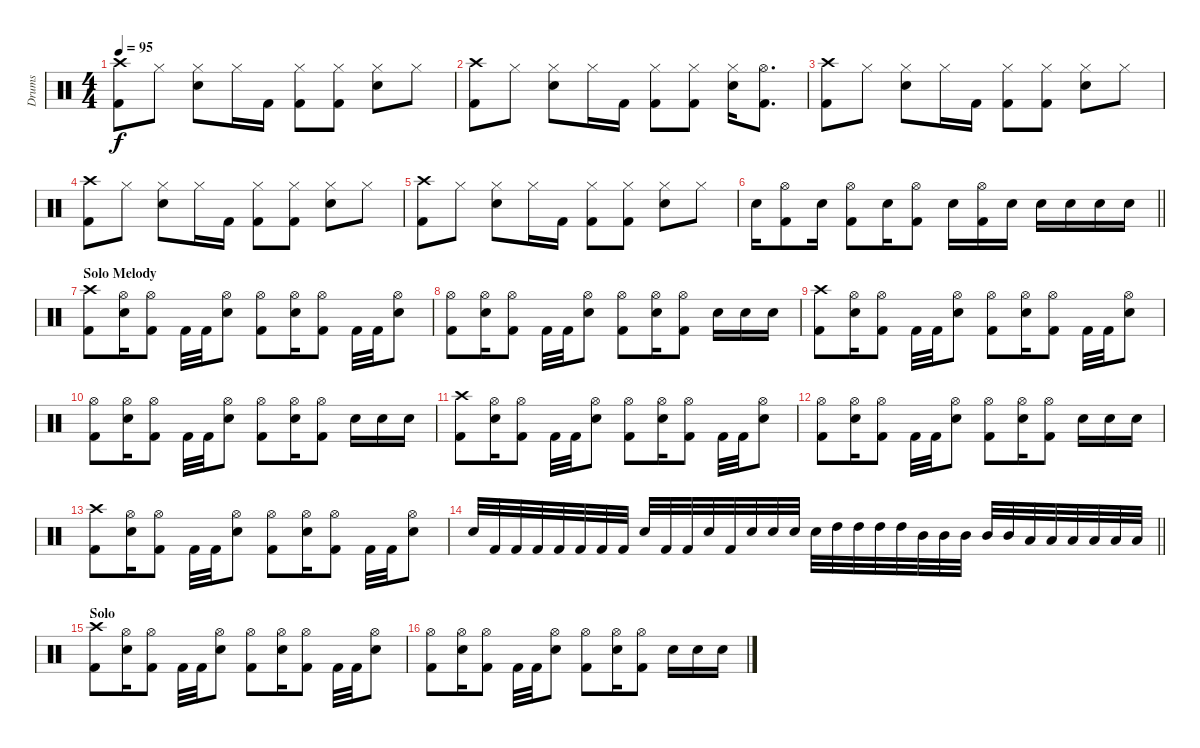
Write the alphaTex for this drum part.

\track ("Drums" "Drums") {instrument percussion}
\staff {score}
\articulation defaults
\ts (4 4)
\tempo 95
\clef neutral
\ks c
("Crash high (hit)" "Kick (hit) 2").8{dy f} "Hi-Hat (closed)".8 ("Hi-Hat (closed)" "Snare (hit) 2").8 "Hi-Hat (closed)".16 "Kick (hit) 2".16 ("Hi-Hat (closed)" "Kick (hit) 2").8 ("Hi-Hat (closed)" "Kick (hit) 2").8 ("Hi-Hat (closed)" "Snare (hit) 2").8 "Hi-Hat (closed)".8 |
("Crash high (hit)" "Kick (hit) 2").8 "Hi-Hat (closed)".8 ("Hi-Hat (closed)" "Snare (hit) 2").8 "Hi-Hat (closed)".16 "Kick (hit) 2".16 ("Hi-Hat (closed)" "Kick (hit) 2").8 ("Hi-Hat (closed)" "Kick (hit) 2").8 ("Hi-Hat (closed)" "Snare (hit) 2").16 ("Hi-Hat (open)" "Kick (hit) 2").8{d} |
("Crash high (hit)" "Kick (hit) 2").8 "Hi-Hat (closed)".8 ("Hi-Hat (closed)" "Snare (hit) 2").8 "Hi-Hat (closed)".16 "Kick (hit) 2".16 ("Hi-Hat (closed)" "Kick (hit) 2").8 ("Hi-Hat (closed)" "Kick (hit) 2").8 ("Hi-Hat (closed)" "Snare (hit) 2").8 "Hi-Hat (closed)".8 |
("Crash high (hit)" "Kick (hit) 2").8 "Hi-Hat (closed)".8 ("Hi-Hat (closed)" "Snare (hit) 2").8 "Hi-Hat (closed)".16 "Kick (hit) 2".16 ("Hi-Hat (closed)" "Kick (hit) 2").8 ("Hi-Hat (closed)" "Kick (hit) 2").8 ("Hi-Hat (closed)" "Snare (hit) 2").8 "Hi-Hat (closed)".8 |
("Crash high (hit)" "Kick (hit) 2").8 "Hi-Hat (closed)".8 ("Hi-Hat (closed)" "Snare (hit) 2").8 "Hi-Hat (closed)".16 "Kick (hit) 2".16 ("Hi-Hat (closed)" "Kick (hit) 2").8 ("Hi-Hat (closed)" "Kick (hit) 2").8 ("Hi-Hat (closed)" "Snare (hit) 2").8 "Hi-Hat (closed)".8 |
\barLineRight lightlight "Snare (hit) 2".16
("Hi-Hat (open)" "Kick (hit) 2").8 "Snare (hit) 2".16 ("Hi-Hat (open)" "Kick (hit) 2").8 "Snare (hit) 2".16 ("Hi-Hat (open)" "Kick (hit) 2").8 "Snare (hit) 2".16 ("Hi-Hat (open)" "Kick (hit) 2").16 "Snare (hit) 2".16 "Snare (hit) 2".16 "Snare (hit) 2".16 "Snare (hit) 2".16 "Snare (hit) 2".16 |
\section ("" "Solo Melody")
("Crash high (hit)" "Kick (hit) 2").8 ("Hi-Hat (open)" "Snare (hit) 2").16 ("Hi-Hat (open)" "Kick (hit) 2").8 "Kick (hit) 2".32 "Kick (hit) 2".32 ("Hi-Hat (open)" "Snare (hit) 2").8 ("Hi-Hat (open)" "Kick (hit) 2").8 ("Hi-Hat (open)" "Snare (hit) 2").16 ("Hi-Hat (open)" "Kick (hit) 2").8 "Kick (hit) 2".32 "Kick (hit) 2".32 ("Hi-Hat (open)" "Snare (hit) 2").8 |
("Hi-Hat (open)" "Kick (hit) 2").8 ("Hi-Hat (open)" "Snare (hit) 2").16 ("Hi-Hat (open)" "Kick (hit) 2").8 "Kick (hit) 2".32 "Kick (hit) 2".32 ("Hi-Hat (open)" "Snare (hit) 2").8 ("Hi-Hat (open)" "Kick (hit) 2").8 ("Hi-Hat (open)" "Snare (hit) 2").16 ("Hi-Hat (open)" "Kick (hit) 2").8 "Snare (hit) 2".16 "Snare (hit) 2".16 "Snare (hit) 2".16 |
("Crash high (hit)" "Kick (hit) 2").8 ("Hi-Hat (open)" "Snare (hit) 2").16 ("Hi-Hat (open)" "Kick (hit) 2").8 "Kick (hit) 2".32 "Kick (hit) 2".32 ("Hi-Hat (open)" "Snare (hit) 2").8 ("Hi-Hat (open)" "Kick (hit) 2").8 ("Hi-Hat (open)" "Snare (hit) 2").16 ("Hi-Hat (open)" "Kick (hit) 2").8 "Kick (hit) 2".32 "Kick (hit) 2".32 ("Hi-Hat (open)" "Snare (hit) 2").8 |
("Hi-Hat (open)" "Kick (hit) 2").8 ("Hi-Hat (open)" "Snare (hit) 2").16 ("Hi-Hat (open)" "Kick (hit) 2").8 "Kick (hit) 2".32 "Kick (hit) 2".32 ("Hi-Hat (open)" "Snare (hit) 2").8 ("Hi-Hat (open)" "Kick (hit) 2").8 ("Hi-Hat (open)" "Snare (hit) 2").16 ("Hi-Hat (open)" "Kick (hit) 2").8 "Snare (hit) 2".16 "Snare (hit) 2".16 "Snare (hit) 2".16 |
("Crash high (hit)" "Kick (hit) 2").8 ("Hi-Hat (open)" "Snare (hit) 2").16 ("Hi-Hat (open)" "Kick (hit) 2").8 "Kick (hit) 2".32 "Kick (hit) 2".32 ("Hi-Hat (open)" "Snare (hit) 2").8 ("Hi-Hat (open)" "Kick (hit) 2").8 ("Hi-Hat (open)" "Snare (hit) 2").16 ("Hi-Hat (open)" "Kick (hit) 2").8 "Kick (hit) 2".32 "Kick (hit) 2".32 ("Hi-Hat (open)" "Snare (hit) 2").8 |
("Hi-Hat (open)" "Kick (hit) 2").8 ("Hi-Hat (open)" "Snare (hit) 2").16 ("Hi-Hat (open)" "Kick (hit) 2").8 "Kick (hit) 2".32 "Kick (hit) 2".32 ("Hi-Hat (open)" "Snare (hit) 2").8 ("Hi-Hat (open)" "Kick (hit) 2").8 ("Hi-Hat (open)" "Snare (hit) 2").16 ("Hi-Hat (open)" "Kick (hit) 2").8 "Snare (hit) 2".16 "Snare (hit) 2".16 "Snare (hit) 2".16 |
("Crash high (hit)" "Kick (hit) 2").8 ("Hi-Hat (open)" "Snare (hit) 2").16 ("Hi-Hat (open)" "Kick (hit) 2").8 "Kick (hit) 2".32 "Kick (hit) 2".32 ("Hi-Hat (open)" "Snare (hit) 2").8 ("Hi-Hat (open)" "Kick (hit) 2").8 ("Hi-Hat (open)" "Snare (hit) 2").16 ("Hi-Hat (open)" "Kick (hit) 2").8 "Kick (hit) 2".32 "Kick (hit) 2".32 ("Hi-Hat (open)" "Snare (hit) 2").8 |
\barLineRight lightlight "Snare (hit) 2".32 "Kick (hit) 2".32 "Kick (hit) 2".32 "Kick (hit) 2".32 "Kick (hit) 2".32 "Kick (hit) 2".32 "Kick (hit) 2".32 "Kick (hit) 2".32 "Snare (hit) 2".32 "Kick (hit) 2".32 "Kick (hit) 2".32 "Snare (hit) 2".32 "Kick (hit) 2".32 "Snare (hit) 2".32 "Snare (hit) 2".32 "Snare (hit) 2".32 "Snare (hit) 2".32 "High Tom (hit)".32 "High Tom (hit)".32 "High Tom (hit)".32 "High Tom (hit)".32 "Mid Tom (hit)".32 "Mid Tom (hit)".32 "Mid Tom (hit)".32 "Mid Tom (hit)".32 "Mid Tom (hit)".32 "Low Tom (hit)".32 "Low Tom (hit)".32 "Low Tom (hit)".32 "Low Tom (hit)".32 "Low Tom (hit)".32 "Low Tom (hit)".32
|
\section ("" "Solo")
("Crash high (hit)" "Kick (hit) 2").8 ("Hi-Hat (open)" "Snare (hit) 2").16 ("Hi-Hat (open)" "Kick (hit) 2").8 "Kick (hit) 2".32 "Kick (hit) 2".32 ("Hi-Hat (open)" "Snare (hit) 2").8 ("Hi-Hat (open)" "Kick (hit) 2").8 ("Hi-Hat (open)" "Snare (hit) 2").16 ("Hi-Hat (open)" "Kick (hit) 2").8 "Kick (hit) 2".32 "Kick (hit) 2".32 ("Hi-Hat (open)" "Snare (hit) 2").8 |
("Hi-Hat (open)" "Kick (hit) 2").8 ("Hi-Hat (open)" "Snare (hit) 2").16 ("Hi-Hat (open)" "Kick (hit) 2").8 "Kick (hit) 2".32 "Kick (hit) 2".32 ("Hi-Hat (open)" "Snare (hit) 2").8 ("Hi-Hat (open)" "Kick (hit) 2").8 ("Hi-Hat (open)" "Snare (hit) 2").16 ("Hi-Hat (open)" "Kick (hit) 2").8 "Snare (hit) 2".16 "Snare (hit) 2".16 "Snare (hit) 2".16
